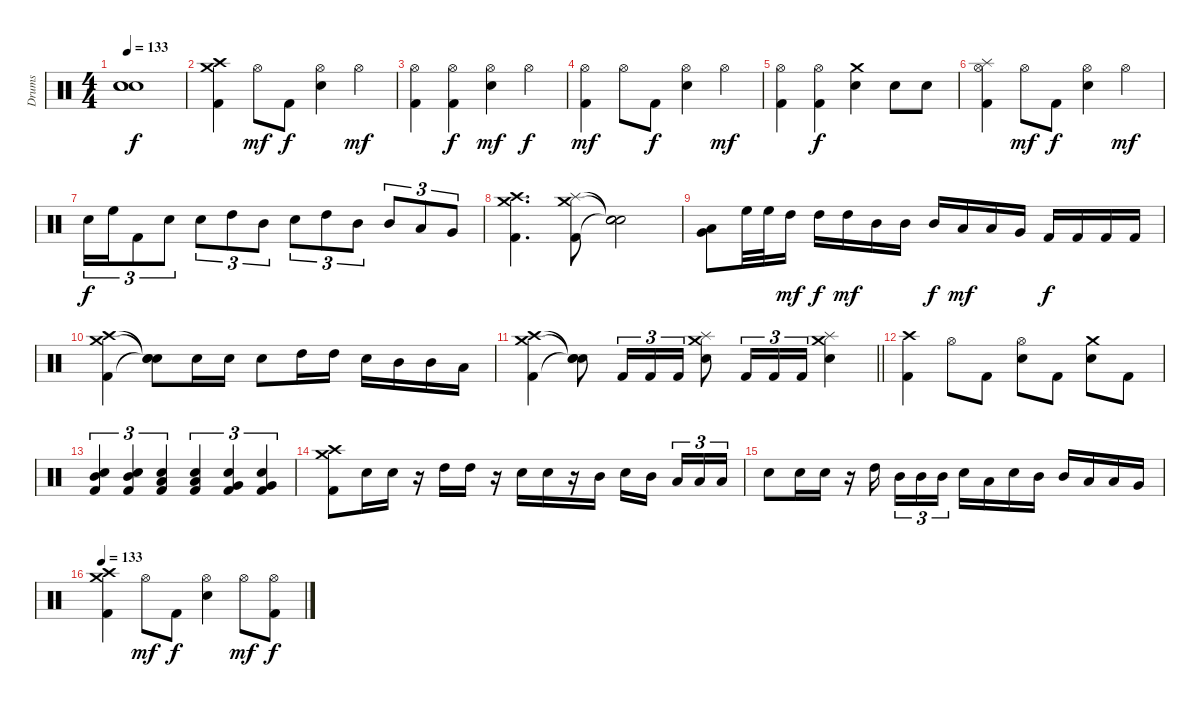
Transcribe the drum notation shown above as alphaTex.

\track ("Drums" "Drums") {instrument percussion}
\staff {score}
\articulation defaults
\ts (4 4)
\tempo 133
\clef neutral
\ks c
("Snare (hit)"{t} "Snare (hit)"{t} "Snare (hit)"{t}).1{dy f} |
("Crash high (hit)" "Crash medium (hit)" "Kick (hit) 2").4 "Hi-Hat (open)".8{dy mf} "Kick (hit) 2".8{dy f} ("Hi-Hat (open)" "Electric Snare (hit)").4 "Hi-Hat (open)".4{dy mf} |
("Hi-Hat (open)" "Kick (hit) 2").4 ("Hi-Hat (open)" "Kick (hit) 2").4{dy f} ("Hi-Hat (open)" "Electric Snare (hit)").4{dy mf} "Hi-Hat (open)".4{dy f} |
("Hi-Hat (open)" "Kick (hit) 2").4{dy mf} "Hi-Hat (open)".8 "Kick (hit) 2".8{dy f} ("Hi-Hat (open)" "Electric Snare (hit)").4 "Hi-Hat (open)".4{dy mf} |
("Hi-Hat (open)" "Kick (hit) 2").4 ("Hi-Hat (open)" "Kick (hit) 2").4{dy f} ("Crash medium (hit)" "Electric Snare (hit)").4 "Electric Snare (hit)".8 "Electric Snare (hit)".8 |
("Splash (hit)" "Hi-Hat (open)" "Kick (hit) 2").4 "Hi-Hat (open)".8{dy mf} "Kick (hit) 2".8{dy f} ("Hi-Hat (open)" "Electric Snare (hit)").4 "Hi-Hat (open)".4{dy mf} |
"Electric Snare (hit)".16{tu (3 2) dy f} "High Floor Tom (hit)".16{tu (3 2)} "Kick (hit) 2".8{tu (3 2)} "Electric Snare (hit)".8{tu (3 2)} "Electric Snare (hit)".8{tu (3 2)} "High Tom (hit)".8{tu (3 2)} "Mid Tom (hit)".8{tu (3 2)} "Electric Snare (hit)".8{tu (3 2)} "High Tom (hit)".8{tu (3 2)} "Mid Tom (hit)".8{tu (3 2)} "Mid Tom (hit)".8{tu (3 2)} "Low Tom (hit)".8{tu (3 2)} "Very Low Tom (hit)".8{tu (3 2)} |
("Crash high (hit)" "Crash medium (hit)" "Kick (hit) 2").4{d} ("Crash medium (hit)" "Splash (hit)" "Kick (hit) 2").8 ("Snare (hit)"{t} "Snare (hit)"{t} "Snare (hit)"{t}).2 |
("Low Tom (hit)" "Very Low Tom (hit)").8 "High Floor Tom (hit)".32 "High Floor Tom (hit)".32 "High Tom (hit)".16{dy mf} "High Tom (hit)".16{dy f} "High Tom (hit)".16{dy mf} "Mid Tom (hit)".16 "Mid Tom (hit)".16 "Mid Tom (hit)".16{dy f} "Low Tom (hit)".16{dy mf} "Low Tom (hit)".16 "Very Low Tom (hit)".16 "Kick (hit) 2".16{dy f} "Kick (hit) 2".16 "Kick (hit) 2".16 "Kick (hit) 2".16 |
("Crash high (hit)" "Crash medium (hit)" "Kick (hit) 2").4 ("Snare (hit)"{t} "Snare (hit)"{t} "Snare (hit)"{t}).8 "Electric Snare (hit)".16 "Electric Snare (hit)".16 "Electric Snare (hit)".8 "High Tom (hit)".16 "High Tom (hit)".16 "Electric Snare (hit)".16 "Mid Tom (hit)".16 "Mid Tom (hit)".16 "Low Tom (hit)".16 |
\barLineRight lightlight
("Crash high (hit)" "Crash medium (hit)" "Kick (hit) 2").4 ("Snare (hit)"{t} "Snare (hit)"{t} "Snare (hit)"{t}).8 "Kick (hit) 2".16{tu (3 2)} "Kick (hit) 2".16{tu (3 2)} "Kick (hit) 2".16{tu (3 2)} ("Crash medium (hit)" "Splash (hit)" "Electric Snare (hit)").8 "Kick (hit) 2".16{tu (3 2)} "Kick (hit) 2".16{tu (3 2)} "Kick (hit) 2".16{tu (3 2)} ("Crash medium (hit)" "Splash (hit)" "Electric Snare (hit)").4 |
("Crash high (hit)" "Kick (hit) 2").4 "Hi-Hat (open)".8 "Kick (hit) 2".8 ("Hi-Hat (open)" "Electric Snare (hit)").8 "Kick (hit) 2".8 ("Crash medium (hit)" "Electric Snare (hit)").8 "Kick (hit) 2".8 |
("Mid Tom (hit)" "Electric Snare (hit)" "Kick (hit) 2").4{tu (3 2)} ("Mid Tom (hit)" "Electric Snare (hit)" "Kick (hit) 2").4{tu (3 2)} ("Low Tom (hit)" "Electric Snare (hit)" "Kick (hit) 2").4{tu (3 2)} ("Low Tom (hit)" "Electric Snare (hit)" "Kick (hit) 2").4{tu (3 2)} ("Very Low Tom (hit)" "Electric Snare (hit)" "Kick (hit) 2").4{tu (3 2)} ("Very Low Tom (hit)" "Electric Snare (hit)" "Kick (hit) 2").4{tu (3 2)} |
("Crash high (hit)" "Crash medium (hit)" "Kick (hit) 2").8 "Electric Snare (hit)".16 "Electric Snare (hit)".16 r.16 "High Tom (hit)".16 "High Tom (hit)".16 r.16 "Electric Snare (hit)".16 "Electric Snare (hit)".16 r.16 "Mid Tom (hit)".16 "Electric Snare (hit)".16 "Mid Tom (hit)".16 "Low Tom (hit)".16{tu (3 2)} "Low Tom (hit)".16{tu (3 2)} "Low Tom (hit)".16{tu (3 2)} |
"Electric Snare (hit)".8 "Electric Snare (hit)".16 "Electric Snare (hit)".16 r.16 "High Tom (hit)".16 "Mid Tom (hit)".16{tu (3 2)} "Mid Tom (hit)".16{tu (3 2)} "Mid Tom (hit)".16{tu (3 2)} "Electric Snare (hit)".16 "Low Tom (hit)".16 "Electric Snare (hit)".16 "Mid Tom (hit)".16 "Mid Tom (hit)".16 "Low Tom (hit)".16 "Low Tom (hit)".16 "Very Low Tom (hit)".16 |
\tempo 133
("Crash high (hit)" "Crash medium (hit)" "Kick (hit) 2").4 "Hi-Hat (open)".8{dy mf} "Kick (hit) 2".8{dy f} ("Hi-Hat (open)" "Electric Snare (hit)").4 "Hi-Hat (open)".8{dy mf} ("Hi-Hat (open)" "Kick (hit) 2").8{dy f}
